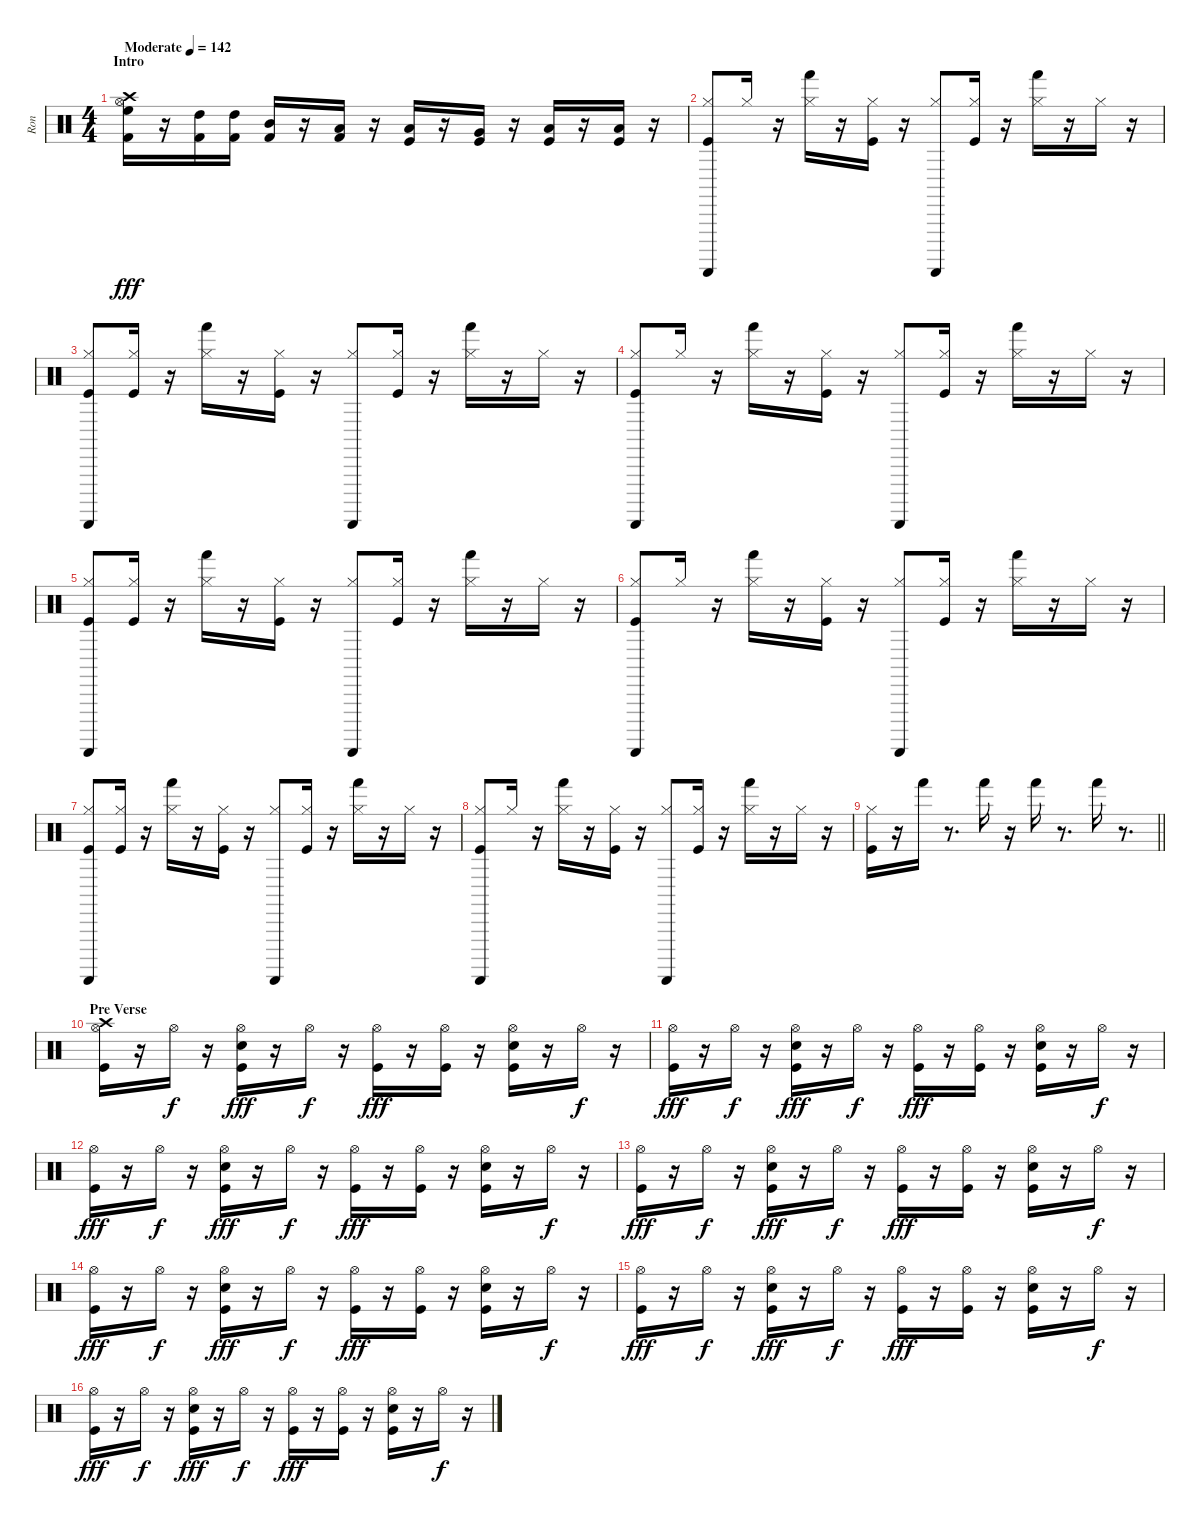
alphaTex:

\track ("Ron" "Ron") {instrument percussion}
\staff {score}
\articulation defaults
\ts (4 4)
\section ("" "Intro")
\tempo (142 "Moderate")
\clef neutral
\ks c
("Kick (hit) 2" "High Floor Tom (hit)" "Hi-Hat (open)" "Crash high (hit)").16{dy fff} r.16 ("Kick (hit) 2" "High Tom (hit)").16 ("Kick (hit) 2" "High Tom (hit)").16 ("Kick (hit) 2" "Mid Tom (hit)").16 r.16 ("Kick (hit) 2" "Low Tom (hit)").16 r.16 ("Kick (hit)" "Low Tom (hit)").16 r.16 ("Kick (hit)" "Very Low Tom (hit)").16 r.16 ("Kick (hit)" "Low Floor Tom (hit)").16 r.16 ("Kick (hit)" "Low Floor Tom (hit)").16 r.16 |
("Kick (hit)" "Hi-Hat (closed)" "Guiro (scrap-return)").8 "Hi-Hat (closed)".16 r.16 ("Hi-Hat (closed)" "Hand (hit)").16 r.16 ("Kick (hit)" "Hi-Hat (closed)").16 r.16 ("Hi-Hat (closed)" "Guiro (scrap-return)").8 ("Kick (hit)" "Hi-Hat (closed)").16 r.16 ("Hi-Hat (closed)" "Hand (hit)").16 r.16 "Hi-Hat (closed)".16 r.16 |
("Kick (hit)" "Hi-Hat (closed)" "Guiro (scrap-return)").8 ("Kick (hit)" "Hi-Hat (closed)").16 r.16 ("Hi-Hat (closed)" "Hand (hit)").16 r.16 ("Kick (hit)" "Hi-Hat (closed)").16 r.16 ("Hi-Hat (closed)" "Guiro (scrap-return)").8 ("Kick (hit)" "Hi-Hat (closed)").16 r.16 ("Hi-Hat (closed)" "Hand (hit)").16 r.16 "Hi-Hat (closed)".16 r.16 |
("Guiro (scrap-return)" "Hi-Hat (closed)" "Kick (hit)").8 "Hi-Hat (closed)".16 r.16 ("Hi-Hat (closed)" "Hand (hit)").16 r.16 ("Kick (hit)" "Hi-Hat (closed)").16 r.16 ("Hi-Hat (closed)" "Guiro (scrap-return)").8 ("Kick (hit)" "Hi-Hat (closed)").16 r.16 ("Hi-Hat (closed)" "Hand (hit)").16 r.16 "Hi-Hat (closed)".16 r.16 |
("Kick (hit)" "Hi-Hat (closed)" "Guiro (scrap-return)").8 ("Kick (hit)" "Hi-Hat (closed)").16 r.16 ("Hi-Hat (closed)" "Hand (hit)").16 r.16 ("Kick (hit)" "Hi-Hat (closed)").16 r.16 ("Hi-Hat (closed)" "Guiro (scrap-return)").8 ("Kick (hit)" "Hi-Hat (closed)").16 r.16 ("Hi-Hat (closed)" "Hand (hit)").16 r.16 "Hi-Hat (closed)".16 r.16 |
("Guiro (scrap-return)" "Hi-Hat (closed)" "Kick (hit)").8 "Hi-Hat (closed)".16 r.16 ("Hi-Hat (closed)" "Hand (hit)").16 r.16 ("Kick (hit)" "Hi-Hat (closed)").16 r.16 ("Hi-Hat (closed)" "Guiro (scrap-return)").8 ("Kick (hit)" "Hi-Hat (closed)").16 r.16 ("Hi-Hat (closed)" "Hand (hit)").16 r.16 "Hi-Hat (closed)".16 r.16 |
("Kick (hit)" "Hi-Hat (closed)" "Guiro (scrap-return)").8 ("Kick (hit)" "Hi-Hat (closed)").16 r.16 ("Hi-Hat (closed)" "Hand (hit)").16 r.16 ("Kick (hit)" "Hi-Hat (closed)").16 r.16 ("Hi-Hat (closed)" "Guiro (scrap-return)").8 ("Kick (hit)" "Hi-Hat (closed)").16 r.16 ("Hi-Hat (closed)" "Hand (hit)").16 r.16 "Hi-Hat (closed)".16 r.16 |
("Guiro (scrap-return)" "Hi-Hat (closed)" "Kick (hit)").8 "Hi-Hat (closed)".16 r.16 ("Hi-Hat (closed)" "Hand (hit)").16 r.16 ("Kick (hit)" "Hi-Hat (closed)").16 r.16 ("Hi-Hat (closed)" "Guiro (scrap-return)").8 ("Kick (hit)" "Hi-Hat (closed)").16 r.16 ("Hi-Hat (closed)" "Hand (hit)").16 r.16 "Hi-Hat (closed)".16 r.16 |
\barLineRight lightlight
("Kick (hit)" "Hi-Hat (closed)").16 r.16 "Hand (hit)".16 r.8{d} "Hand (hit)".16 r.16 "Hand (hit)".16 r.8{d} "Hand (hit)".16 r.8{d} |
\section ("" "Pre Verse")
("Crash high (hit)" "Hi-Hat (open)" "Kick (hit)").16 r.16 "Hi-Hat (open)".16{dy f} r.16 ("Snare (hit) 2" "Kick (hit)" "Hi-Hat (open)").16{dy fff} r.16 "Hi-Hat (open)".16{dy f} r.16 ("Kick (hit)" "Hi-Hat (open)").16{dy fff} r.16 ("Kick (hit)" "Hi-Hat (open)").16 r.16 ("Kick (hit)" "Snare (hit) 2" "Hi-Hat (open)").16 r.16 "Hi-Hat (open)".16{dy f} r.16 |
("Kick (hit)" "Hi-Hat (open)").16{dy fff} r.16 "Hi-Hat (open)".16{dy f} r.16 ("Snare (hit) 2" "Kick (hit)" "Hi-Hat (open)").16{dy fff} r.16 "Hi-Hat (open)".16{dy f} r.16 ("Kick (hit)" "Hi-Hat (open)").16{dy fff} r.16 ("Kick (hit)" "Hi-Hat (open)").16 r.16 ("Kick (hit)" "Snare (hit) 2" "Hi-Hat (open)").16 r.16 "Hi-Hat (open)".16{dy f} r.16 |
("Kick (hit)" "Hi-Hat (open)").16{dy fff} r.16 "Hi-Hat (open)".16{dy f} r.16 ("Snare (hit) 2" "Kick (hit)" "Hi-Hat (open)").16{dy fff} r.16 "Hi-Hat (open)".16{dy f} r.16 ("Kick (hit)" "Hi-Hat (open)").16{dy fff} r.16 ("Kick (hit)" "Hi-Hat (open)").16 r.16 ("Kick (hit)" "Snare (hit) 2" "Hi-Hat (open)").16 r.16 "Hi-Hat (open)".16{dy f} r.16 |
("Kick (hit)" "Hi-Hat (open)").16{dy fff} r.16 "Hi-Hat (open)".16{dy f} r.16 ("Snare (hit) 2" "Kick (hit)" "Hi-Hat (open)").16{dy fff} r.16 "Hi-Hat (open)".16{dy f} r.16 ("Kick (hit)" "Hi-Hat (open)").16{dy fff} r.16 ("Kick (hit)" "Hi-Hat (open)").16 r.16 ("Kick (hit)" "Snare (hit) 2" "Hi-Hat (open)").16 r.16 "Hi-Hat (open)".16{dy f} r.16 |
("Kick (hit)" "Hi-Hat (open)").16{dy fff} r.16 "Hi-Hat (open)".16{dy f} r.16 ("Snare (hit) 2" "Kick (hit)" "Hi-Hat (open)").16{dy fff} r.16 "Hi-Hat (open)".16{dy f} r.16 ("Kick (hit)" "Hi-Hat (open)").16{dy fff} r.16 ("Kick (hit)" "Hi-Hat (open)").16 r.16 ("Kick (hit)" "Snare (hit) 2" "Hi-Hat (open)").16 r.16 "Hi-Hat (open)".16{dy f} r.16 |
("Kick (hit)" "Hi-Hat (open)").16{dy fff} r.16 "Hi-Hat (open)".16{dy f} r.16 ("Snare (hit) 2" "Kick (hit)" "Hi-Hat (open)").16{dy fff} r.16 "Hi-Hat (open)".16{dy f} r.16 ("Kick (hit)" "Hi-Hat (open)").16{dy fff} r.16 ("Kick (hit)" "Hi-Hat (open)").16 r.16 ("Kick (hit)" "Snare (hit) 2" "Hi-Hat (open)").16 r.16 "Hi-Hat (open)".16{dy f} r.16 |
("Kick (hit)" "Hi-Hat (open)").16{dy fff} r.16 "Hi-Hat (open)".16{dy f} r.16 ("Snare (hit) 2" "Kick (hit)" "Hi-Hat (open)").16{dy fff} r.16 "Hi-Hat (open)".16{dy f} r.16 ("Kick (hit)" "Hi-Hat (open)").16{dy fff} r.16 ("Kick (hit)" "Hi-Hat (open)").16 r.16 ("Kick (hit)" "Snare (hit) 2" "Hi-Hat (open)").16 r.16 "Hi-Hat (open)".16{dy f} r.16
